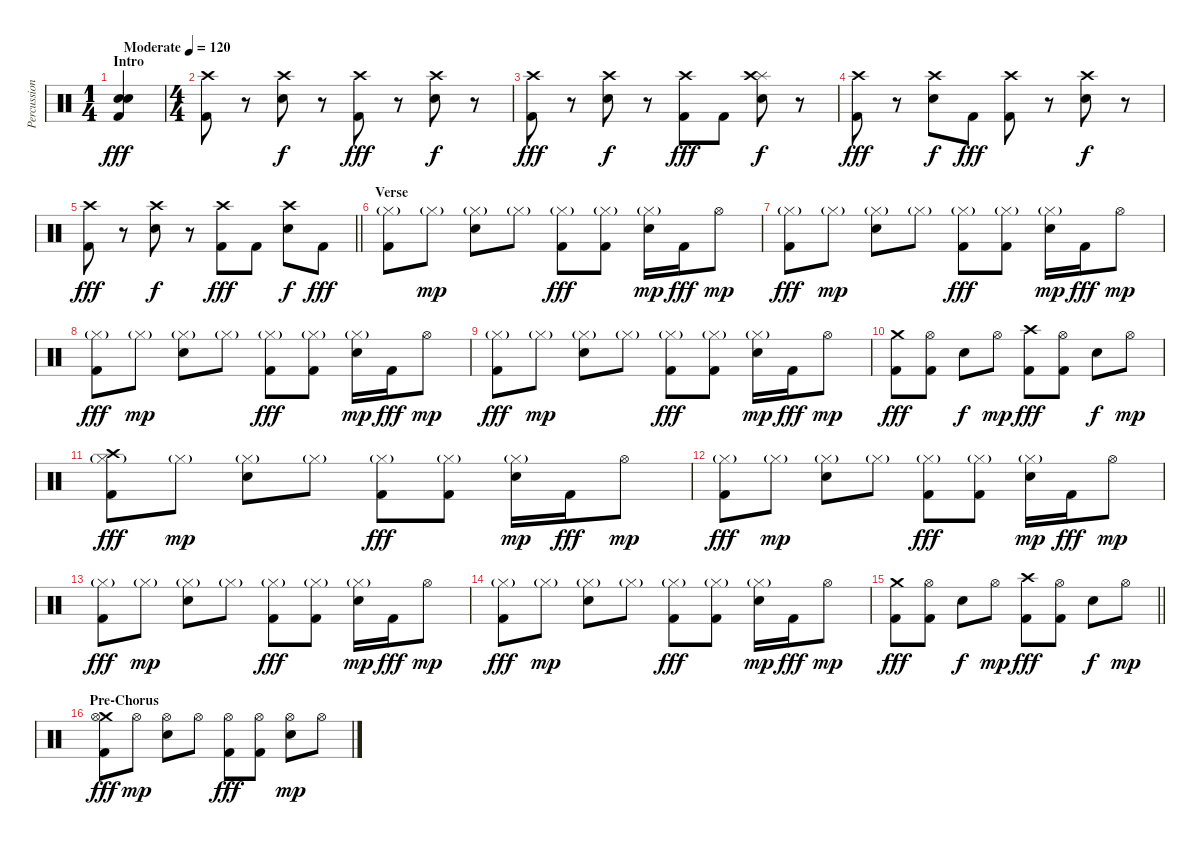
\track ("Percussion" "Percussion") {instrument percussion}
\staff {score}
\articulation defaults
\ts (1 4)
\section ("" "Intro")
\tempo (120 "Moderate")
\clef neutral
\ks c
("Electric Snare (hit)" "Electric Snare (hit)" "Kick (hit) 2").4{dy fff} |
\ts (4 4)
("Crash high (hit)" "Kick (hit) 2").8 r.8 ("Electric Snare (hit)" "Crash high (hit)").8{dy f} r.8 ("Crash high (hit)" "Kick (hit) 2").8{dy fff} r.8 ("Electric Snare (hit)" "Crash high (hit)").8{dy f} r.8 |
("Crash high (hit)" "Kick (hit) 2").8{dy fff} r.8 ("Electric Snare (hit)" "Crash high (hit)").8{dy f} r.8 ("Crash high (hit)" "Kick (hit) 2").8{dy fff} "Kick (hit) 2".8 ("Splash (hit)" "Electric Snare (hit)" "Crash high (hit)").8{dy f} r.8 |
("Crash high (hit)" "Kick (hit) 2").8{dy fff} r.8 ("Electric Snare (hit)" "Crash high (hit)").8{dy f} "Kick (hit) 2".8{dy fff} ("Crash high (hit)" "Kick (hit) 2").8 r.8 ("Electric Snare (hit)" "Crash high (hit)").8{dy f} r.8 |
\barLineRight lightlight
("Crash high (hit)" "Kick (hit) 2").8{dy fff} r.8 ("Electric Snare (hit)" "Crash high (hit)").8{dy f} r.8 ("Crash high (hit)" "Kick (hit) 2").8{dy fff} "Kick (hit) 2".8 ("Electric Snare (hit)" "Crash high (hit)").8{dy f} "Kick (hit) 2".8{dy fff} |
\section ("" "Verse")
("Hi-Hat (closed)"{g} "Kick (hit) 2").8 "Hi-Hat (closed)"{g}.8{dy mp} ("Hi-Hat (closed)"{g} "Electric Snare (hit)").8 "Hi-Hat (closed)"{g}.8 ("Hi-Hat (closed)"{g} "Kick (hit) 2").8{dy fff} ("Hi-Hat (closed)"{g} "Kick (hit) 2").8 ("Hi-Hat (closed)"{g} "Electric Snare (hit)").16{dy mp} "Kick (hit) 2".16{dy fff} "Hi-Hat (open)".8{dy mp} |
("Hi-Hat (closed)"{g} "Kick (hit) 2").8{dy fff} "Hi-Hat (closed)"{g}.8{dy mp} ("Hi-Hat (closed)"{g} "Electric Snare (hit)").8 "Hi-Hat (closed)"{g}.8 ("Hi-Hat (closed)"{g} "Kick (hit) 2").8{dy fff} ("Hi-Hat (closed)"{g} "Kick (hit) 2").8 ("Hi-Hat (closed)"{g} "Electric Snare (hit)").16{dy mp} "Kick (hit) 2".16{dy fff} "Hi-Hat (open)".8{dy mp} |
("Hi-Hat (closed)"{g} "Kick (hit) 2").8{dy fff} "Hi-Hat (closed)"{g}.8{dy mp} ("Hi-Hat (closed)"{g} "Electric Snare (hit)").8 "Hi-Hat (closed)"{g}.8 ("Hi-Hat (closed)"{g} "Kick (hit) 2").8{dy fff} ("Hi-Hat (closed)"{g} "Kick (hit) 2").8 ("Hi-Hat (closed)"{g} "Electric Snare (hit)").16{dy mp} "Kick (hit) 2".16{dy fff} "Hi-Hat (open)".8{dy mp} |
("Hi-Hat (closed)"{g} "Kick (hit) 2").8{dy fff} "Hi-Hat (closed)"{g}.8{dy mp} ("Hi-Hat (closed)"{g} "Electric Snare (hit)").8 "Hi-Hat (closed)"{g}.8 ("Hi-Hat (closed)"{g} "Kick (hit) 2").8{dy fff} ("Hi-Hat (closed)"{g} "Kick (hit) 2").8 ("Hi-Hat (closed)"{g} "Electric Snare (hit)").16{dy mp} "Kick (hit) 2".16{dy fff} "Hi-Hat (open)".8{dy mp} |
("Crash medium (hit)" "Kick (hit) 2").8{dy fff} ("Hi-Hat (open)" "Kick (hit) 2").8 "Electric Snare (hit)".8{dy f} "Hi-Hat (open)".8{dy mp} ("Crash high (hit)" "Kick (hit) 2").8{dy fff} ("Hi-Hat (open)" "Kick (hit) 2").8 "Electric Snare (hit)".8{dy f} "Hi-Hat (open)".8{dy mp} |
("Crash high (hit)" "Hi-Hat (closed)"{g} "Kick (hit) 2").8{dy fff} "Hi-Hat (closed)"{g}.8{dy mp} ("Hi-Hat (closed)"{g} "Electric Snare (hit)").8 "Hi-Hat (closed)"{g}.8 ("Hi-Hat (closed)"{g} "Kick (hit) 2").8{dy fff} ("Hi-Hat (closed)"{g} "Kick (hit) 2").8 ("Hi-Hat (closed)"{g} "Electric Snare (hit)").16{dy mp} "Kick (hit) 2".16{dy fff} "Hi-Hat (open)".8{dy mp} |
("Hi-Hat (closed)"{g} "Kick (hit) 2").8{dy fff} "Hi-Hat (closed)"{g}.8{dy mp} ("Hi-Hat (closed)"{g} "Electric Snare (hit)").8 "Hi-Hat (closed)"{g}.8 ("Hi-Hat (closed)"{g} "Kick (hit) 2").8{dy fff} ("Hi-Hat (closed)"{g} "Kick (hit) 2").8 ("Hi-Hat (closed)"{g} "Electric Snare (hit)").16{dy mp} "Kick (hit) 2".16{dy fff} "Hi-Hat (open)".8{dy mp} |
("Hi-Hat (closed)"{g} "Kick (hit) 2").8{dy fff} "Hi-Hat (closed)"{g}.8{dy mp} ("Hi-Hat (closed)"{g} "Electric Snare (hit)").8 "Hi-Hat (closed)"{g}.8 ("Hi-Hat (closed)"{g} "Kick (hit) 2").8{dy fff} ("Hi-Hat (closed)"{g} "Kick (hit) 2").8 ("Hi-Hat (closed)"{g} "Electric Snare (hit)").16{dy mp} "Kick (hit) 2".16{dy fff} "Hi-Hat (open)".8{dy mp} |
("Hi-Hat (closed)"{g} "Kick (hit) 2").8{dy fff} "Hi-Hat (closed)"{g}.8{dy mp} ("Hi-Hat (closed)"{g} "Electric Snare (hit)").8 "Hi-Hat (closed)"{g}.8 ("Hi-Hat (closed)"{g} "Kick (hit) 2").8{dy fff} ("Hi-Hat (closed)"{g} "Kick (hit) 2").8 ("Hi-Hat (closed)"{g} "Electric Snare (hit)").16{dy mp} "Kick (hit) 2".16{dy fff} "Hi-Hat (open)".8{dy mp} |
\barLineRight lightlight
("Crash medium (hit)" "Kick (hit) 2").8{dy fff} ("Hi-Hat (open)" "Kick (hit) 2").8 "Electric Snare (hit)".8{dy f} "Hi-Hat (open)".8{dy mp} ("Crash high (hit)" "Kick (hit) 2").8{dy fff} ("Hi-Hat (open)" "Kick (hit) 2").8 "Electric Snare (hit)".8{dy f} "Hi-Hat (open)".8{dy mp} |
\section ("" "Pre-Chorus")
("Crash medium (hit)" "Hi-Hat (open)" "Kick (hit) 2").8{dy fff} "Hi-Hat (open)".8{dy mp} ("Hi-Hat (open)" "Electric Snare (hit)").8 "Hi-Hat (open)".8 ("Hi-Hat (open)" "Kick (hit) 2").8{dy fff} ("Hi-Hat (open)" "Kick (hit) 2").8 ("Hi-Hat (open)" "Electric Snare (hit)").8{dy mp} "Hi-Hat (open)".8
